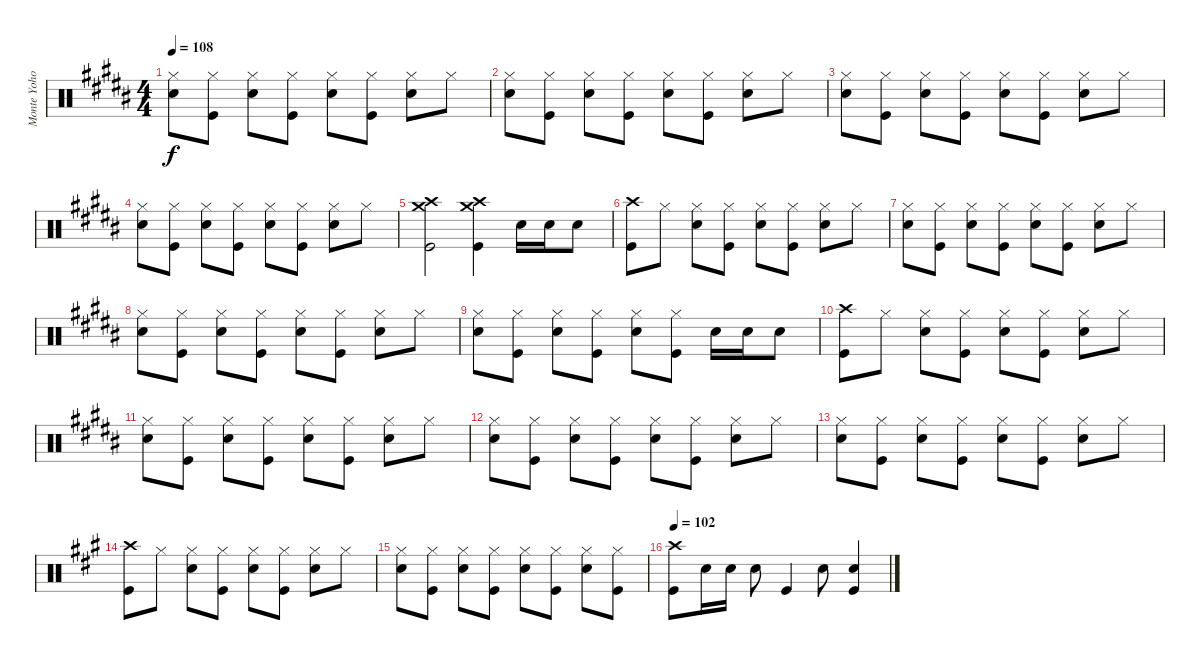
\track ("Monte Yoho Drums" "Monte Yoho") {instrument percussion}
\staff {score}
\articulation defaults
\ts (4 4)
\tempo 108
\clef neutral
\ks b
("Hi-Hat (closed)" "Snare (hit) 2").8{dy f} ("Hi-Hat (closed)" "Kick (hit)").8 ("Hi-Hat (closed)" "Snare (hit) 2").8 ("Hi-Hat (closed)" "Kick (hit)").8 ("Hi-Hat (closed)" "Snare (hit) 2").8 ("Hi-Hat (closed)" "Kick (hit)").8 ("Hi-Hat (closed)" "Snare (hit) 2").8 "Hi-Hat (closed)".8 |
("Hi-Hat (closed)" "Snare (hit) 2").8 ("Hi-Hat (closed)" "Kick (hit)").8 ("Hi-Hat (closed)" "Snare (hit) 2").8 ("Hi-Hat (closed)" "Kick (hit)").8 ("Hi-Hat (closed)" "Snare (hit) 2").8 ("Hi-Hat (closed)" "Kick (hit)").8 ("Hi-Hat (closed)" "Snare (hit) 2").8 "Hi-Hat (closed)".8 |
("Hi-Hat (closed)" "Snare (hit) 2").8 ("Hi-Hat (closed)" "Kick (hit)").8 ("Hi-Hat (closed)" "Snare (hit) 2").8 ("Hi-Hat (closed)" "Kick (hit)").8 ("Hi-Hat (closed)" "Snare (hit) 2").8 ("Hi-Hat (closed)" "Kick (hit)").8 ("Hi-Hat (closed)" "Snare (hit) 2").8 "Hi-Hat (closed)".8 |
("Hi-Hat (closed)" "Snare (hit) 2").8 ("Hi-Hat (closed)" "Kick (hit)").8 ("Hi-Hat (closed)" "Snare (hit) 2").8 ("Hi-Hat (closed)" "Kick (hit)").8 ("Hi-Hat (closed)" "Snare (hit) 2").8 ("Hi-Hat (closed)" "Kick (hit)").8 ("Hi-Hat (closed)" "Snare (hit) 2").8 "Hi-Hat (closed)".8 |
("Crash high (hit)" "Crash medium (hit)" "Kick (hit)").2 ("Crash high (hit)" "Crash medium (hit)" "Kick (hit)").4 "Snare (hit) 2".16 "Snare (hit) 2".16 "Snare (hit) 2".8 |
("Crash high (hit)" "Kick (hit)").8 "Hi-Hat (closed)".8 ("Hi-Hat (closed)" "Snare (hit) 2").8 ("Hi-Hat (closed)" "Kick (hit)").8 ("Hi-Hat (closed)" "Snare (hit) 2").8 ("Hi-Hat (closed)" "Kick (hit)").8 ("Hi-Hat (closed)" "Snare (hit) 2").8 "Hi-Hat (closed)".8 |
("Hi-Hat (closed)" "Snare (hit) 2").8 ("Hi-Hat (closed)" "Kick (hit)").8 ("Hi-Hat (closed)" "Snare (hit) 2").8 ("Hi-Hat (closed)" "Kick (hit)").8 ("Hi-Hat (closed)" "Snare (hit) 2").8 ("Hi-Hat (closed)" "Kick (hit)").8 ("Hi-Hat (closed)" "Snare (hit) 2").8 "Hi-Hat (closed)".8 |
("Hi-Hat (closed)" "Snare (hit) 2").8 ("Hi-Hat (closed)" "Kick (hit)").8 ("Hi-Hat (closed)" "Snare (hit) 2").8 ("Hi-Hat (closed)" "Kick (hit)").8 ("Hi-Hat (closed)" "Snare (hit) 2").8 ("Hi-Hat (closed)" "Kick (hit)").8 ("Hi-Hat (closed)" "Snare (hit) 2").8 "Hi-Hat (closed)".8 |
("Hi-Hat (closed)" "Snare (hit) 2").8 ("Hi-Hat (closed)" "Kick (hit)").8 ("Hi-Hat (closed)" "Snare (hit) 2").8 ("Hi-Hat (closed)" "Kick (hit)").8 ("Hi-Hat (closed)" "Snare (hit) 2").8 ("Hi-Hat (closed)" "Kick (hit)").8 "Snare (hit) 2".16 "Snare (hit) 2".16 "Snare (hit) 2".8 |
("Crash high (hit)" "Kick (hit)").8 "Hi-Hat (closed)".8 ("Hi-Hat (closed)" "Snare (hit) 2").8 ("Hi-Hat (closed)" "Kick (hit)").8 ("Hi-Hat (closed)" "Snare (hit) 2").8 ("Hi-Hat (closed)" "Kick (hit)").8 ("Hi-Hat (closed)" "Snare (hit) 2").8 "Hi-Hat (closed)".8 |
("Hi-Hat (closed)" "Snare (hit) 2").8 ("Hi-Hat (closed)" "Kick (hit)").8 ("Hi-Hat (closed)" "Snare (hit) 2").8 ("Hi-Hat (closed)" "Kick (hit)").8 ("Hi-Hat (closed)" "Snare (hit) 2").8 ("Hi-Hat (closed)" "Kick (hit)").8 ("Hi-Hat (closed)" "Snare (hit) 2").8 "Hi-Hat (closed)".8 |
("Hi-Hat (closed)" "Snare (hit) 2").8 ("Hi-Hat (closed)" "Kick (hit)").8 ("Hi-Hat (closed)" "Snare (hit) 2").8 ("Hi-Hat (closed)" "Kick (hit)").8 ("Hi-Hat (closed)" "Snare (hit) 2").8 ("Hi-Hat (closed)" "Kick (hit)").8 ("Hi-Hat (closed)" "Snare (hit) 2").8 "Hi-Hat (closed)".8 |
("Hi-Hat (closed)" "Snare (hit) 2").8 ("Hi-Hat (closed)" "Kick (hit)").8 ("Hi-Hat (closed)" "Snare (hit) 2").8 ("Hi-Hat (closed)" "Kick (hit)").8 ("Hi-Hat (closed)" "Snare (hit) 2").8 ("Hi-Hat (closed)" "Kick (hit)").8 ("Hi-Hat (closed)" "Snare (hit) 2").8 "Hi-Hat (closed)".8 |
\ks a
("Crash high (hit)" "Kick (hit)").8 "Hi-Hat (closed)".8 ("Hi-Hat (closed)" "Snare (hit) 2").8 ("Hi-Hat (closed)" "Kick (hit)").8 ("Hi-Hat (closed)" "Snare (hit) 2").8 ("Hi-Hat (closed)" "Kick (hit)").8 ("Hi-Hat (closed)" "Snare (hit) 2").8 "Hi-Hat (closed)".8 |
("Hi-Hat (closed)" "Snare (hit) 2").8 ("Hi-Hat (closed)" "Kick (hit)").8 ("Hi-Hat (closed)" "Snare (hit) 2").8 ("Hi-Hat (closed)" "Kick (hit)").8 ("Hi-Hat (closed)" "Snare (hit) 2").8 ("Hi-Hat (closed)" "Kick (hit)").8 ("Hi-Hat (closed)" "Snare (hit) 2").8 ("Hi-Hat (closed)" "Kick (hit)").8 |
\tempo 102
("Crash high (hit)" "Kick (hit)").8 "Snare (hit) 2".16 "Snare (hit) 2".16 "Snare (hit) 2".8 "Kick (hit)".4 "Snare (hit) 2".8 ("Snare (hit) 2" "Kick (hit)").4
